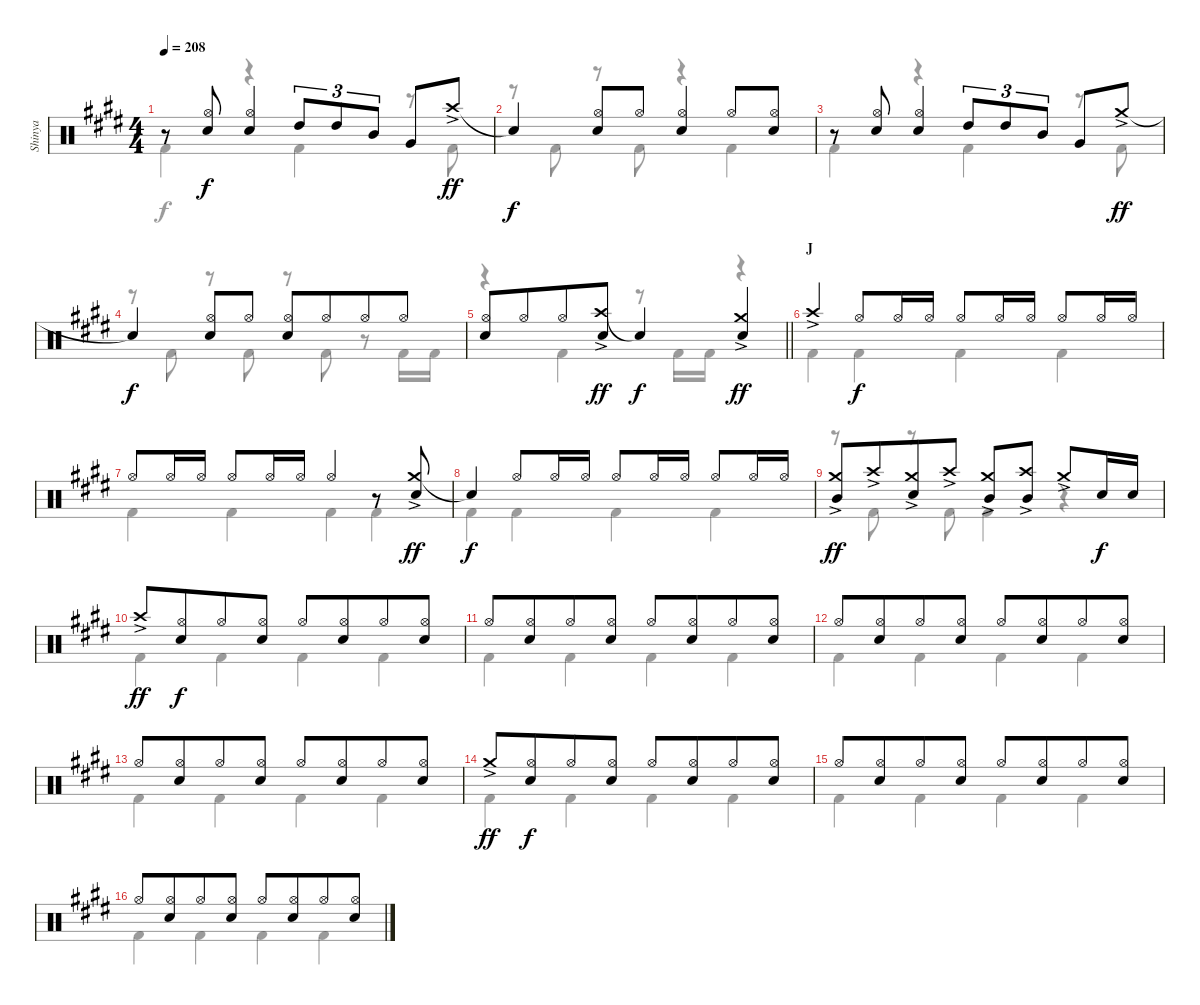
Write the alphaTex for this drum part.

\track ("Shinya" "Shinya") {instrument percussion}
\staff {score}
\articulation defaults
\voice
\ts (4 4)
\tempo 208
\clef neutral
\ks c#minor
r.8{dy f} ("Hi-Hat (open)" "Snare (hit) 2").8 ("Hi-Hat (open)" "Snare (hit) 2").4 "High Tom (hit)".8{tu (3 2)} "High Tom (hit)".8{tu (3 2)} "Mid Tom (hit)".8{tu (3 2)} "Very Low Tom (hit)".8 "Crash high (hit)"{ac}.8{dy ff} |
"Snare (hit)"{t}.4{dy f} ("Hi-Hat (open)" "Snare (hit) 2").8 "Hi-Hat (open)".8 ("Hi-Hat (open)" "Snare (hit) 2").4 "Hi-Hat (open)".8 ("Hi-Hat (open)" "Snare (hit) 2").8 |
r.8 ("Hi-Hat (open)" "Snare (hit) 2").8 ("Hi-Hat (open)" "Snare (hit) 2").4 "High Tom (hit)".8{tu (3 2)} "High Tom (hit)".8{tu (3 2)} "Mid Tom (hit)".8{tu (3 2)} "Very Low Tom (hit)".8 "Crash medium (hit)"{ac}.8{dy ff} |
"Snare (hit)"{t}.4{dy f} ("Hi-Hat (open)" "Snare (hit) 2").8 "Hi-Hat (open)".8 ("Hi-Hat (open)" "Snare (hit) 2").8 "Hi-Hat (open)".8{beam merge} "Hi-Hat (open)".8 "Hi-Hat (open)".8 |
\barLineRight lightlight
("Hi-Hat (open)" "Snare (hit) 2").8 "Hi-Hat (open)".8{beam merge} "Hi-Hat (open)".8 ("Crash high (hit)"{ac} "Snare (hit) 2").8{dy ff} "Snare (hit)"{t}.4{dy f} ("Crash medium (hit)"{ac} "Snare (hit) 2").4{dy ff} |
\section ("" "J")
"Crash high (hit)"{ac}.4 "Hi-Hat (open)".8{dy f} "Hi-Hat (open)".16 "Hi-Hat (open)".16 "Hi-Hat (open)".8 "Hi-Hat (open)".16 "Hi-Hat (open)".16 "Hi-Hat (open)".8 "Hi-Hat (open)".16 "Hi-Hat (open)".16 |
"Hi-Hat (open)".8 "Hi-Hat (open)".16 "Hi-Hat (open)".16 "Hi-Hat (open)".8 "Hi-Hat (open)".16 "Hi-Hat (open)".16 "Hi-Hat (open)".4 r.8 ("Crash medium (hit)"{ac} "Snare (hit) 2").8{dy ff} |
"Snare (hit)"{t}.4{dy f} "Hi-Hat (open)".8 "Hi-Hat (open)".16 "Hi-Hat (open)".16 "Hi-Hat (open)".8 "Hi-Hat (open)".16 "Hi-Hat (open)".16 "Hi-Hat (open)".8 "Hi-Hat (open)".16 "Hi-Hat (open)".16 |
("Crash medium (hit)"{ac} "Mid Tom (hit)").8{dy ff} "Crash high (hit)"{ac}.8{beam merge} ("Crash medium (hit)"{ac} "Snare (hit) 2").8 "Crash high (hit)"{ac}.8 ("Crash medium (hit)"{ac} "Mid Tom (hit)").8 ("Crash high (hit)"{ac} "Mid Tom (hit)").8 "Crash medium (hit)"{ac}.8 "Snare (hit) 2".16{dy f} "Snare (hit) 2".16 |
"Crash high (hit)"{ac}.8{dy ff} ("Hi-Hat (open)" "Snare (hit) 2").8{dy f beam merge} "Hi-Hat (open)".8 ("Hi-Hat (open)" "Snare (hit) 2").8 "Hi-Hat (open)".8 ("Hi-Hat (open)" "Snare (hit) 2").8{beam merge} "Hi-Hat (open)".8 ("Hi-Hat (open)" "Snare (hit) 2").8 |
"Hi-Hat (open)".8 ("Hi-Hat (open)" "Snare (hit) 2").8{beam merge} "Hi-Hat (open)".8 ("Hi-Hat (open)" "Snare (hit) 2").8 "Hi-Hat (open)".8 ("Hi-Hat (open)" "Snare (hit) 2").8{beam merge} "Hi-Hat (open)".8 ("Hi-Hat (open)" "Snare (hit) 2").8 |
"Hi-Hat (open)".8 ("Hi-Hat (open)" "Snare (hit) 2").8{beam merge} "Hi-Hat (open)".8 ("Hi-Hat (open)" "Snare (hit) 2").8 "Hi-Hat (open)".8 ("Hi-Hat (open)" "Snare (hit) 2").8{beam merge} "Hi-Hat (open)".8 ("Hi-Hat (open)" "Snare (hit) 2").8 |
"Hi-Hat (open)".8 ("Hi-Hat (open)" "Snare (hit) 2").8{beam merge} "Hi-Hat (open)".8 ("Hi-Hat (open)" "Snare (hit) 2").8 "Hi-Hat (open)".8 ("Hi-Hat (open)" "Snare (hit) 2").8{beam merge} "Hi-Hat (open)".8 ("Hi-Hat (open)" "Snare (hit) 2").8 |
"Crash medium (hit)"{ac}.8{dy ff} ("Hi-Hat (open)" "Snare (hit) 2").8{dy f beam merge} "Hi-Hat (open)".8 ("Hi-Hat (open)" "Snare (hit) 2").8 "Hi-Hat (open)".8 ("Hi-Hat (open)" "Snare (hit) 2").8{beam merge} "Hi-Hat (open)".8 ("Hi-Hat (open)" "Snare (hit) 2").8 |
"Hi-Hat (open)".8 ("Hi-Hat (open)" "Snare (hit) 2").8{beam merge} "Hi-Hat (open)".8 ("Hi-Hat (open)" "Snare (hit) 2").8 "Hi-Hat (open)".8 ("Hi-Hat (open)" "Snare (hit) 2").8{beam merge} "Hi-Hat (open)".8 ("Hi-Hat (open)" "Snare (hit) 2").8 |
"Hi-Hat (open)".8 ("Hi-Hat (open)" "Snare (hit) 2").8{beam merge} "Hi-Hat (open)".8 ("Hi-Hat (open)" "Snare (hit) 2").8 "Hi-Hat (open)".8 ("Hi-Hat (open)" "Snare (hit) 2").8{beam merge} "Hi-Hat (open)".8 ("Hi-Hat (open)" "Snare (hit) 2").8
\voice
\clef neutral
\ottava regular
\simile none
\ks c#minor "Kick (hit) 2".4{dy f}
r.4 "Kick (hit) 2".4 r.8 "Kick (hit) 2".8 |
r.8 "Kick (hit) 2".8 r.8 "Kick (hit) 2".8 r.4 "Kick (hit) 2".4 |
"Kick (hit) 2".4 r.4 "Kick (hit) 2".4 r.8 "Kick (hit) 2".8 |
r.8 "Kick (hit) 2".8 r.8 "Kick (hit) 2".8 r.8 "Kick (hit) 2".8 r.8 "Kick (hit) 2".16 "Kick (hit) 2".16 |
\barLineRight lightlight
r.4 "Kick (hit) 2".4 r.8 "Kick (hit) 2".16 "Kick (hit) 2".16 r.4 |
"Kick (hit) 2".4 "Kick (hit) 2".4 "Kick (hit) 2".4 "Kick (hit) 2".4 |
"Kick (hit) 2".4 "Kick (hit) 2".4 "Kick (hit) 2".4 "Kick (hit) 2".4 |
"Kick (hit) 2".4 "Kick (hit) 2".4 "Kick (hit) 2".4 "Kick (hit) 2".4 |
r.8 "Kick (hit) 2".8 r.8 "Kick (hit) 2".8 "Kick (hit) 2".4 r.4 |
"Kick (hit) 2".4 "Kick (hit) 2".4 "Kick (hit) 2".4 "Kick (hit) 2".4 |
"Kick (hit) 2".4 "Kick (hit) 2".4 "Kick (hit) 2".4 "Kick (hit) 2".4 |
"Kick (hit) 2".4 "Kick (hit) 2".4 "Kick (hit) 2".4 "Kick (hit) 2".4 |
"Kick (hit) 2".4 "Kick (hit) 2".4 "Kick (hit) 2".4 "Kick (hit) 2".4 |
"Kick (hit) 2".4 "Kick (hit) 2".4 "Kick (hit) 2".4 "Kick (hit) 2".4 |
"Kick (hit) 2".4 "Kick (hit) 2".4 "Kick (hit) 2".4 "Kick (hit) 2".4 |
"Kick (hit) 2".4 "Kick (hit) 2".4 "Kick (hit) 2".4 "Kick (hit) 2".4
